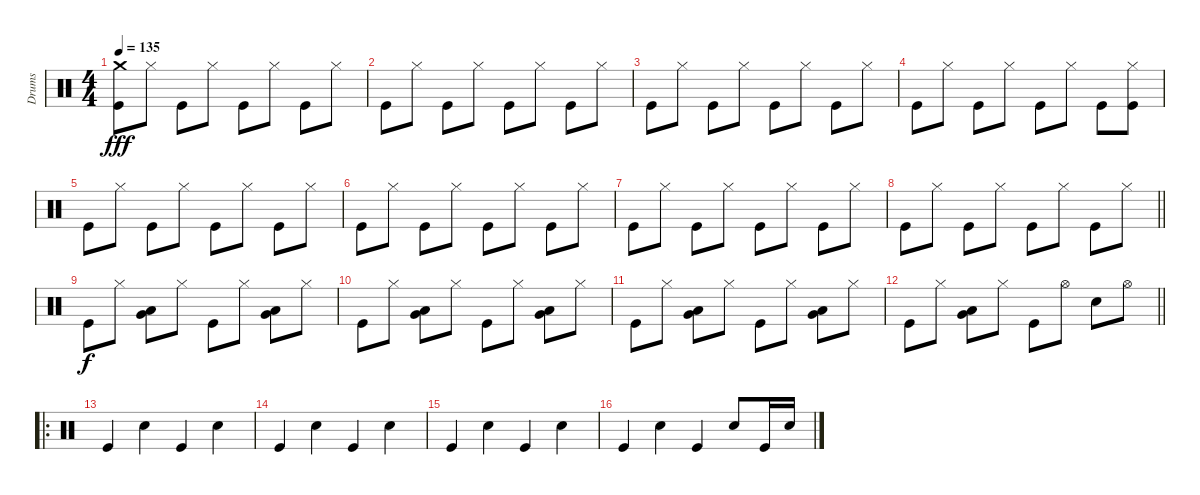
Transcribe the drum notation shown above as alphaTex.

\track ("Drums" "Drums") {instrument percussion}
\staff {score}
\articulation defaults
\ts (4 4)
\tempo 135
\clef neutral
\ks c
("Crash medium (hit)" "Kick (hit)").8{dy fff} "Hi-Hat (closed)".8 "Kick (hit)".8 "Hi-Hat (closed)".8 "Kick (hit)".8 "Hi-Hat (closed)".8 "Kick (hit)".8 "Hi-Hat (closed)".8 |
"Kick (hit)".8 "Hi-Hat (closed)".8 "Kick (hit)".8 "Hi-Hat (closed)".8 "Kick (hit)".8 "Hi-Hat (closed)".8 "Kick (hit)".8 "Hi-Hat (closed)".8 |
"Kick (hit)".8 "Hi-Hat (closed)".8 "Kick (hit)".8 "Hi-Hat (closed)".8 "Kick (hit)".8 "Hi-Hat (closed)".8 "Kick (hit)".8 "Hi-Hat (closed)".8 |
"Kick (hit)".8 "Hi-Hat (closed)".8 "Kick (hit)".8 "Hi-Hat (closed)".8 "Kick (hit)".8 "Hi-Hat (closed)".8 "Kick (hit)".8 ("Hi-Hat (closed)" "Kick (hit)").8 |
"Kick (hit)".8 "Hi-Hat (closed)".8 "Kick (hit)".8 "Hi-Hat (closed)".8 "Kick (hit)".8 "Hi-Hat (closed)".8 "Kick (hit)".8 "Hi-Hat (closed)".8 |
"Kick (hit)".8 "Hi-Hat (closed)".8 "Kick (hit)".8 "Hi-Hat (closed)".8 "Kick (hit)".8 "Hi-Hat (closed)".8 "Kick (hit)".8 "Hi-Hat (closed)".8 |
"Kick (hit)".8 "Hi-Hat (closed)".8 "Kick (hit)".8 "Hi-Hat (closed)".8 "Kick (hit)".8 "Hi-Hat (closed)".8 "Kick (hit)".8 "Hi-Hat (closed)".8 |
\barLineRight lightlight "Kick (hit)".8 "Hi-Hat (closed)".8 "Kick (hit)".8 "Hi-Hat (closed)".8 "Kick (hit)".8 "Hi-Hat (closed)".8 "Kick (hit)".8 "Hi-Hat (closed)".8
|
"Kick (hit)".8{dy f} "Hi-Hat (closed)".8 ("Low Tom (hit)" "Very Low Tom (hit)").8 "Hi-Hat (closed)".8 "Kick (hit)".8 "Hi-Hat (closed)".8 ("Low Tom (hit)" "Very Low Tom (hit)").8 "Hi-Hat (closed)".8 |
"Kick (hit)".8 "Hi-Hat (closed)".8 ("Low Tom (hit)" "Very Low Tom (hit)").8 "Hi-Hat (closed)".8 "Kick (hit)".8 "Hi-Hat (closed)".8 ("Low Tom (hit)" "Very Low Tom (hit)").8 "Hi-Hat (closed)".8 |
"Kick (hit)".8 "Hi-Hat (closed)".8 ("Low Tom (hit)" "Very Low Tom (hit)").8 "Hi-Hat (closed)".8 "Kick (hit)".8 "Hi-Hat (closed)".8 ("Low Tom (hit)" "Very Low Tom (hit)").8 "Hi-Hat (closed)".8 |
\barLineRight lightlight "Kick (hit)".8 "Hi-Hat (closed)".8
("Low Tom (hit)" "Very Low Tom (hit)").8 "Hi-Hat (closed)".8 "Kick (hit)".8 "Hi-Hat (open)".8 "Electric Snare (hit)".8 "Hi-Hat (open)".8 |
\ro "Kick (hit)".4 "Electric Snare (hit)".4 "Kick (hit)".4 "Electric Snare (hit)".4
|
"Kick (hit)".4 "Electric Snare (hit)".4 "Kick (hit)".4 "Electric Snare (hit)".4 |
"Kick (hit)".4 "Electric Snare (hit)".4 "Kick (hit)".4 "Electric Snare (hit)".4 |
"Kick (hit)".4 "Electric Snare (hit)".4 "Kick (hit)".4 "Electric Snare (hit)".8 "Kick (hit)".16 "Electric Snare (hit)".16
